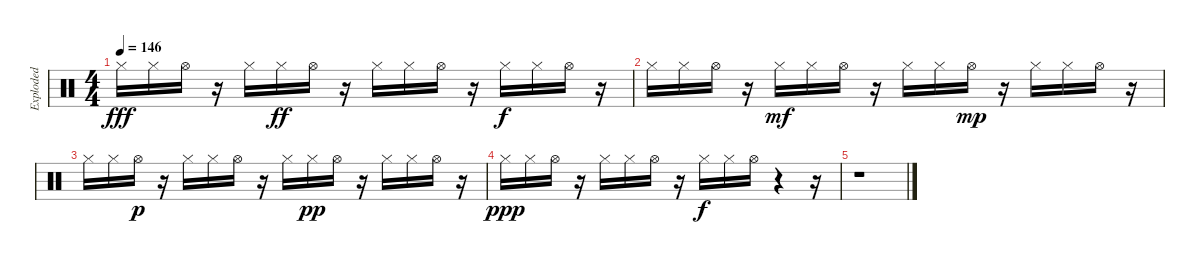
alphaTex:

\track ("Exploded" "Exploded") {instrument percussion}
\staff {score}
\articulation defaults
\ts (4 4)
\tempo 146
\clef neutral
\ks c "Hi-Hat (closed)".16{dy fff} "Hi-Hat (closed)".16 "Hi-Hat (open)".16
r.16 "Hi-Hat (closed)".16 "Hi-Hat (closed)".16{dy ff} "Hi-Hat (open)".16 r.16 "Hi-Hat (closed)".16 "Hi-Hat (closed)".16 "Hi-Hat (open)".16 r.16 "Hi-Hat (closed)".16{dy f} "Hi-Hat (closed)".16 "Hi-Hat (open)".16 r.16 |
"Hi-Hat (closed)".16 "Hi-Hat (closed)".16 "Hi-Hat (open)".16 r.16 "Hi-Hat (closed)".16{dy mf} "Hi-Hat (closed)".16 "Hi-Hat (open)".16 r.16 "Hi-Hat (closed)".16 "Hi-Hat (closed)".16 "Hi-Hat (open)".16{dy mp} r.16 "Hi-Hat (closed)".16 "Hi-Hat (closed)".16 "Hi-Hat (open)".16 r.16 |
"Hi-Hat (closed)".16 "Hi-Hat (closed)".16 "Hi-Hat (open)".16{dy p} r.16 "Hi-Hat (closed)".16 "Hi-Hat (closed)".16 "Hi-Hat (open)".16 r.16 "Hi-Hat (closed)".16 "Hi-Hat (closed)".16{dy pp} "Hi-Hat (open)".16 r.16 "Hi-Hat (closed)".16 "Hi-Hat (closed)".16 "Hi-Hat (open)".16 r.16 |
"Hi-Hat (closed)".16{dy ppp} "Hi-Hat (closed)".16 "Hi-Hat (open)".16 r.16 "Hi-Hat (closed)".16 "Hi-Hat (closed)".16 "Hi-Hat (open)".16 r.16 "Hi-Hat (closed)".16{dy f} "Hi-Hat (closed)".16 "Hi-Hat (open)".16 r.4 r.16 |
r.1
